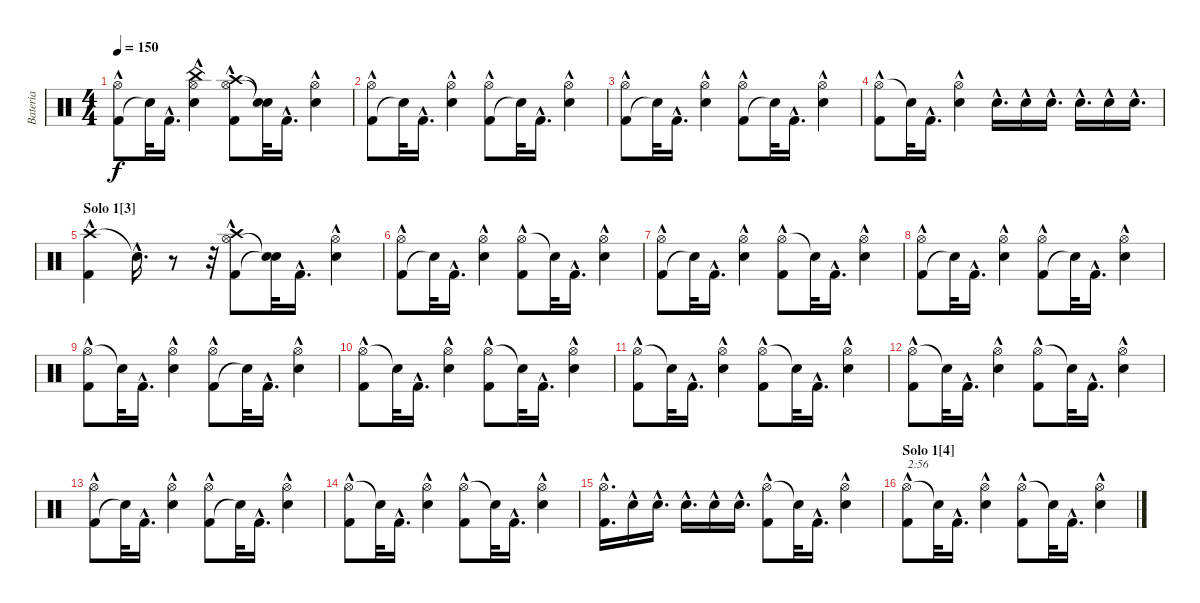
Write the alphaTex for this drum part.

\track ("Bateria" "Bateria") {instrument percussion}
\staff {score}
\articulation defaults
\ts (4 4)
\tempo 150
\clef neutral
\ks c
("Kick (hit) 2"{hac} "Hi-Hat (open)").8{dy f} "Snare (hit)"{t}.32 "Kick (hit) 2"{hac}.16{d} ("Hi-Hat (open)" "Snare (hit) 2"{hac} "China (hit)").4 ("Hi-Hat (open)" "Crash high (hit)" "Kick (hit) 2"{hac}).8 ("Snare (hit)"{t} "Snare (hit)"{t}).32 "Kick (hit) 2"{hac}.16{d} ("Hi-Hat (open)" "Snare (hit) 2"{hac}).4 |
("Kick (hit) 2"{hac} "Hi-Hat (open)").8 "Snare (hit)"{t}.32 "Kick (hit) 2"{hac}.16{d} ("Hi-Hat (open)" "Snare (hit) 2"{hac}).4 ("Kick (hit) 2"{hac} "Hi-Hat (open)").8 "Snare (hit)"{t}.32 "Kick (hit) 2"{hac}.16{d} ("Hi-Hat (open)" "Snare (hit) 2"{hac}).4 |
("Kick (hit) 2"{hac} "Hi-Hat (open)").8 "Snare (hit)"{t}.32 "Kick (hit) 2"{hac}.16{d} ("Snare (hit) 2"{hac} "Hi-Hat (open)").4 ("Kick (hit) 2"{hac} "Hi-Hat (open)").8 "Snare (hit)"{t}.32 "Kick (hit) 2"{hac}.16{d} ("Snare (hit) 2"{hac} "Hi-Hat (open)").4 |
("Hi-Hat (open)" "Kick (hit) 2"{hac}).8 "Snare (hit)"{t}.32 "Kick (hit) 2"{hac}.16{d} ("Snare (hit) 2"{hac} "Hi-Hat (open)").4 "Snare (hit) 2"{hac}.16{d} "Snare (hit) 2"{hac}.16 "Snare (hit) 2"{hac}.16{d} "Snare (hit) 2"{hac}.16{d} "Snare (hit) 2"{hac}.16 "Snare (hit) 2"{hac}.16{d} |
\section ("" "Solo 1[3]")
("Crash high (hit)" "Kick (hit) 2"{hac}).4 "Snare (hit)"{hac t}.16{d} r.8 r.32 ("Kick (hit) 2"{hac} "Hi-Hat (open)" "Crash high (hit)").8 ("Snare (hit)"{t} "Snare (hit)"{t}).32 "Kick (hit) 2"{hac}.16{d} ("Snare (hit) 2"{hac} "Hi-Hat (open)").4 |
("Kick (hit) 2"{hac} "Hi-Hat (open)").8 "Snare (hit)"{t}.32 "Kick (hit) 2"{hac}.16{d} ("Snare (hit) 2"{hac} "Hi-Hat (open)").4 ("Hi-Hat (open)" "Kick (hit) 2"{hac}).8 "Snare (hit)"{t}.32 "Kick (hit) 2"{hac}.16{d} ("Snare (hit) 2"{hac} "Hi-Hat (open)").4 |
("Kick (hit) 2"{hac} "Hi-Hat (open)").8 "Snare (hit)"{t}.32 "Kick (hit) 2"{hac}.16{d} ("Hi-Hat (open)" "Snare (hit) 2"{hac}).4 ("Hi-Hat (open)" "Kick (hit) 2"{hac}).8 "Snare (hit)"{t}.32 "Kick (hit) 2"{hac}.16{d} ("Hi-Hat (open)" "Snare (hit) 2"{hac}).4 |
("Kick (hit) 2"{hac} "Hi-Hat (open)").8 "Snare (hit)"{t}.32 "Kick (hit) 2"{hac}.16{d} ("Snare (hit) 2"{hac} "Hi-Hat (open)").4 ("Kick (hit) 2"{hac} "Hi-Hat (open)").8 "Snare (hit)"{t}.32 "Kick (hit) 2"{hac}.16{d} ("Hi-Hat (open)" "Snare (hit) 2"{hac}).4 |
("Hi-Hat (open)" "Kick (hit) 2"{hac}).8 "Snare (hit)"{t}.32 "Kick (hit) 2"{hac}.16{d} ("Snare (hit) 2"{hac} "Hi-Hat (open)").4 ("Kick (hit) 2"{hac} "Hi-Hat (open)").8 "Snare (hit)"{t}.32 "Kick (hit) 2"{hac}.16{d} ("Snare (hit) 2"{hac} "Hi-Hat (open)").4 |
("Hi-Hat (open)" "Kick (hit) 2"{hac}).8 "Snare (hit)"{t}.32 "Kick (hit) 2"{hac}.16{d} ("Hi-Hat (open)" "Snare (hit) 2"{hac}).4 ("Hi-Hat (open)" "Kick (hit) 2"{hac}).8 "Snare (hit)"{t}.32 "Kick (hit) 2"{hac}.16{d} ("Snare (hit) 2"{hac} "Hi-Hat (open)").4 |
("Hi-Hat (open)" "Kick (hit) 2"{hac}).8 "Snare (hit)"{t}.32 "Kick (hit) 2"{hac}.16{d} ("Hi-Hat (open)" "Snare (hit) 2"{hac}).4 ("Hi-Hat (open)" "Kick (hit) 2"{hac}).8 "Snare (hit)"{t}.32 "Kick (hit) 2"{hac}.16{d} ("Hi-Hat (open)" "Snare (hit) 2"{hac}).4 |
("Hi-Hat (open)" "Kick (hit) 2"{hac}).8 "Snare (hit)"{t}.32 "Kick (hit) 2"{hac}.16{d} ("Snare (hit) 2"{hac} "Hi-Hat (open)").4 ("Hi-Hat (open)" "Kick (hit) 2"{hac}).8 "Snare (hit)"{t}.32 "Kick (hit) 2"{hac}.16{d} ("Hi-Hat (open)" "Snare (hit) 2"{hac}).4 |
("Kick (hit) 2"{hac} "Hi-Hat (open)").8 "Snare (hit)"{t}.32 "Kick (hit) 2"{hac}.16{d} ("Hi-Hat (open)" "Snare (hit) 2"{hac}).4 ("Kick (hit) 2"{hac} "Hi-Hat (open)").8 "Snare (hit)"{t}.32 "Kick (hit) 2"{hac}.16{d} ("Hi-Hat (open)" "Snare (hit) 2"{hac}).4 |
("Hi-Hat (open)" "Kick (hit) 2"{hac}).8 "Snare (hit)"{t}.32 "Kick (hit) 2"{hac}.16{d} ("Snare (hit) 2"{hac} "Hi-Hat (open)").4 ("Hi-Hat (open)" "Kick (hit) 2"{hac}).8 "Snare (hit)"{t}.32 "Kick (hit) 2"{hac}.16{d} ("Snare (hit) 2"{hac} "Hi-Hat (open)").4 |
("Kick (hit) 2"{hac} "Hi-Hat (open)").16{d} "Snare (hit) 2"{hac}.16 "Snare (hit) 2"{hac}.16{d} "Snare (hit) 2"{hac}.16{d} "Snare (hit) 2"{hac}.16 "Snare (hit) 2"{hac}.16{d} ("Hi-Hat (open)" "Kick (hit) 2"{hac}).8 "Snare (hit)"{t}.32 "Kick (hit) 2"{hac}.16{d} ("Snare (hit) 2"{hac} "Hi-Hat (open)").4 |
\section ("" "Solo 1[4]")
("Hi-Hat (open)" "Kick (hit) 2"{hac}).8{txt "2:56"} "Snare (hit)"{t}.32 "Kick (hit) 2"{hac}.16{d} ("Hi-Hat (open)" "Snare (hit) 2"{hac}).4 ("Hi-Hat (open)" "Kick (hit) 2"{hac}).8 "Snare (hit)"{t}.32 "Kick (hit) 2"{hac}.16{d} ("Hi-Hat (open)" "Snare (hit) 2"{hac}).4
